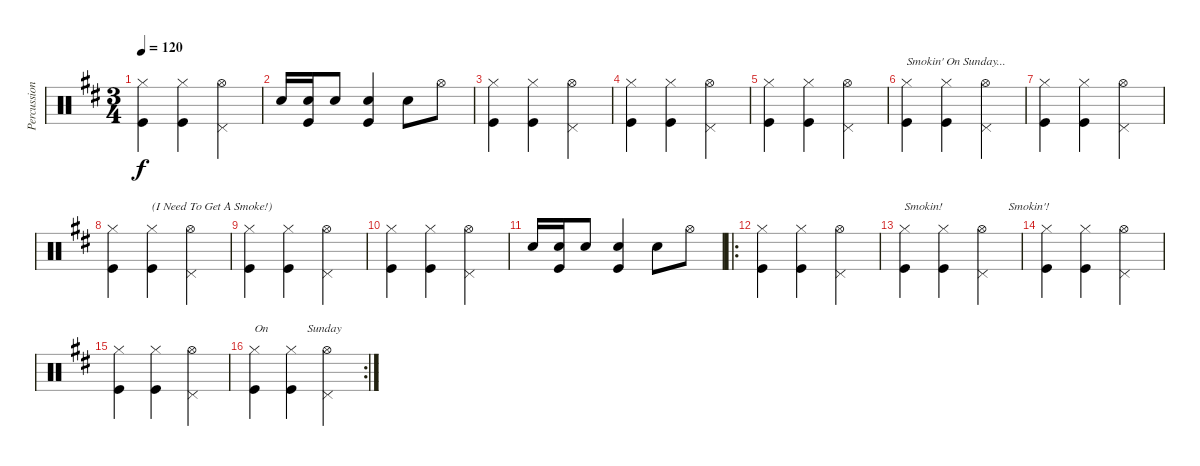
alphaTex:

\track ("Percussion" "Percussion") {instrument percussion}
\staff {score}
\articulation defaults
\ts (3 4)
\tempo 120
\clef neutral
\ks bminor
("Hi-Hat (closed)" "Kick (hit)").4{dy f} ("Hi-Hat (closed)" "Kick (hit)").4 ("Pedal Hi-Hat (hit)" "Hi-Hat (open)").4 |
"Snare (hit) 2".16 ("Snare (hit) 2" "Kick (hit)").16 "Snare (hit) 2".8 ("Snare (hit) 2" "Kick (hit)").4 "Snare (hit) 2".8 "Hi-Hat (open)".8 |
("Hi-Hat (closed)" "Kick (hit)").4 ("Hi-Hat (closed)" "Kick (hit)").4 ("Pedal Hi-Hat (hit)" "Hi-Hat (open)").4 |
("Hi-Hat (closed)" "Kick (hit)").4 ("Hi-Hat (closed)" "Kick (hit)").4 ("Pedal Hi-Hat (hit)" "Hi-Hat (open)").4 |
("Hi-Hat (closed)" "Kick (hit)").4 ("Hi-Hat (closed)" "Kick (hit)").4 ("Pedal Hi-Hat (hit)" "Hi-Hat (open)").4 |
("Hi-Hat (closed)" "Kick (hit)").4{txt "Smokin' On Sunday..."} ("Hi-Hat (closed)" "Kick (hit)").4 ("Pedal Hi-Hat (hit)" "Hi-Hat (open)").4 |
("Hi-Hat (closed)" "Kick (hit)").4 ("Hi-Hat (closed)" "Kick (hit)").4 ("Pedal Hi-Hat (hit)" "Hi-Hat (open)").4 |
("Hi-Hat (closed)" "Kick (hit)").4 ("Hi-Hat (closed)" "Kick (hit)").4{txt "(I Need To Get A Smoke!)"} ("Pedal Hi-Hat (hit)" "Hi-Hat (open)").4 |
("Hi-Hat (closed)" "Kick (hit)").4 ("Hi-Hat (closed)" "Kick (hit)").4 ("Pedal Hi-Hat (hit)" "Hi-Hat (open)").4 |
("Hi-Hat (closed)" "Kick (hit)").4 ("Hi-Hat (closed)" "Kick (hit)").4 ("Pedal Hi-Hat (hit)" "Hi-Hat (open)").4 |
"Snare (hit) 2".16 ("Snare (hit) 2" "Kick (hit)").16 "Snare (hit) 2".8 ("Snare (hit) 2" "Kick (hit)").4 "Snare (hit) 2".8 "Hi-Hat (open)".8 |
\ro
("Hi-Hat (closed)" "Kick (hit)").4 ("Hi-Hat (closed)" "Kick (hit)").4 ("Pedal Hi-Hat (hit)" "Hi-Hat (open)").4 |
("Hi-Hat (closed)" "Kick (hit)").4{txt "Smokin!                      Smokin'!"} ("Hi-Hat (closed)" "Kick (hit)").4 ("Pedal Hi-Hat (hit)" "Hi-Hat (open)").4 |
("Hi-Hat (closed)" "Kick (hit)").4 ("Hi-Hat (closed)" "Kick (hit)").4 ("Pedal Hi-Hat (hit)" "Hi-Hat (open)").4 |
("Hi-Hat (closed)" "Kick (hit)").4 ("Hi-Hat (closed)" "Kick (hit)").4 ("Pedal Hi-Hat (hit)" "Hi-Hat (open)").4 |
\rc 2
("Hi-Hat (closed)" "Kick (hit)").4{txt "On             Sunday"} ("Hi-Hat (closed)" "Kick (hit)").4 ("Pedal Hi-Hat (hit)" "Hi-Hat (open)").4
